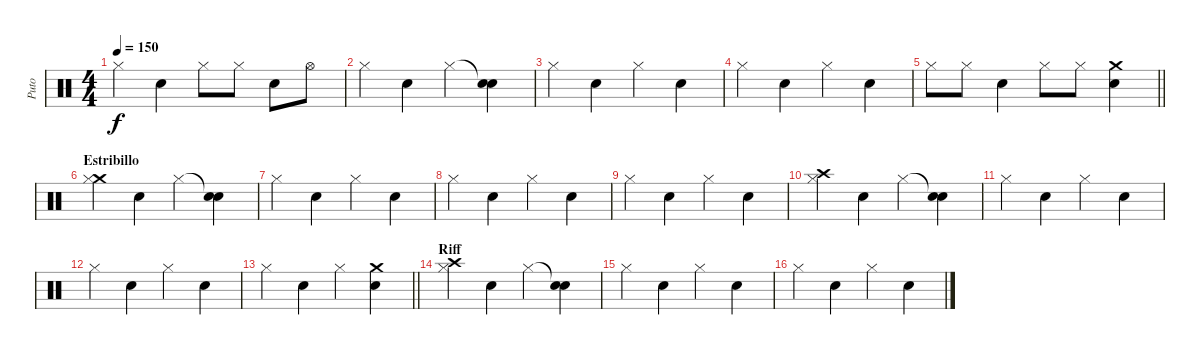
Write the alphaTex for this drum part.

\track ("Puto" "Puto") {instrument percussion}
\staff {score}
\articulation defaults
\ts (4 4)
\tempo 150
\clef neutral
\ks c "Hi-Hat (closed)".4{dy f} "Electric Snare (hit)".4 "Hi-Hat (closed)".8 "Hi-Hat (closed)".8 "Electric Snare (hit)".8 "Hi-Hat (open)".8
|
"Hi-Hat (closed)".4 "Electric Snare (hit)".4 "Hi-Hat (closed)".4 ("Snare (hit)"{t} "Electric Snare (hit)").4 |
"Hi-Hat (closed)".4 "Electric Snare (hit)".4 "Hi-Hat (closed)".4 "Electric Snare (hit)".4 |
"Hi-Hat (closed)".4 "Electric Snare (hit)".4 "Hi-Hat (closed)".4 "Electric Snare (hit)".4 |
\barLineRight lightlight "Hi-Hat (closed)".8 "Hi-Hat (closed)".8 "Electric Snare (hit)".4 "Hi-Hat (closed)".8 "Hi-Hat (closed)".8
("Crash medium (hit)" "Electric Snare (hit)").4 |
\section ("" "Estribillo")
("Crash medium (hit)" "Hi-Hat (closed)").4 "Electric Snare (hit)".4 "Hi-Hat (closed)".4 ("Snare (hit)"{t} "Electric Snare (hit)").4 |
"Hi-Hat (closed)".4 "Electric Snare (hit)".4 "Hi-Hat (closed)".4 "Electric Snare (hit)".4 |
"Hi-Hat (closed)".4 "Electric Snare (hit)".4 "Hi-Hat (closed)".4 "Electric Snare (hit)".4 |
"Hi-Hat (closed)".4 "Electric Snare (hit)".4 "Hi-Hat (closed)".4 "Electric Snare (hit)".4 |
("Crash high (hit)" "Hi-Hat (closed)").4 "Electric Snare (hit)".4 "Hi-Hat (closed)".4 ("Snare (hit)"{t} "Electric Snare (hit)").4 |
"Hi-Hat (closed)".4 "Electric Snare (hit)".4 "Hi-Hat (closed)".4 "Electric Snare (hit)".4 |
"Hi-Hat (closed)".4 "Electric Snare (hit)".4 "Hi-Hat (closed)".4 "Electric Snare (hit)".4 |
\barLineRight lightlight "Hi-Hat (closed)".4 "Electric Snare (hit)".4 "Hi-Hat (closed)".4
("Crash medium (hit)" "Electric Snare (hit)").4 |
\section ("" "Riff")
("Crash high (hit)" "Hi-Hat (closed)").4 "Electric Snare (hit)".4 "Hi-Hat (closed)".4 ("Snare (hit)"{t} "Electric Snare (hit)").4 |
"Hi-Hat (closed)".4 "Electric Snare (hit)".4 "Hi-Hat (closed)".4 "Electric Snare (hit)".4 |
"Hi-Hat (closed)".4 "Electric Snare (hit)".4 "Hi-Hat (closed)".4 "Electric Snare (hit)".4
